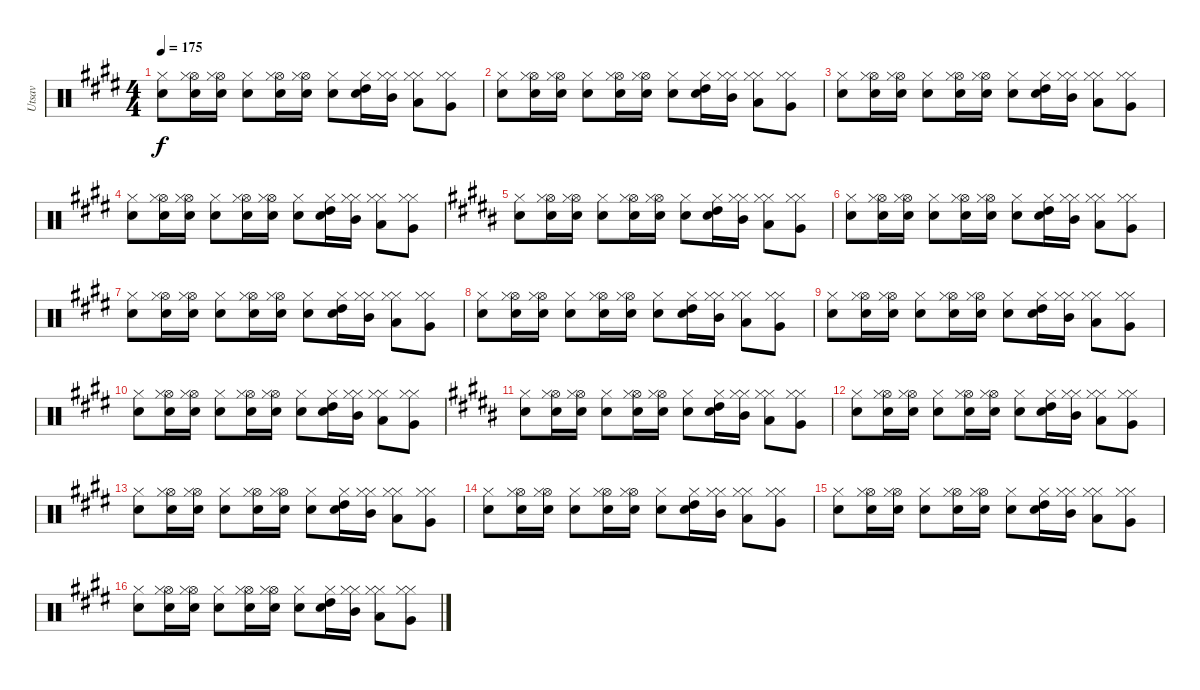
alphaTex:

\track ("Utsav" "Utsav") {instrument percussion}
\staff {score}
\articulation defaults
\ts (4 4)
\tempo 175
\clef neutral
\ks e
("Electric Snare (hit)" "Hi-Hat (closed)").8{dy f} ("Hi-Hat (open)" "Snare (hit) 2" "Hi-Hat (closed)").16 ("Hi-Hat (open)" "Snare (hit) 2" "Hi-Hat (closed)").16 ("Electric Snare (hit)" "Hi-Hat (closed)").8 ("Hi-Hat (open)" "Snare (hit) 2" "Hi-Hat (closed)").16 ("Hi-Hat (open)" "Snare (hit) 2" "Hi-Hat (closed)").16 ("Electric Snare (hit)" "Hi-Hat (closed)").8 ("Hi-Hat (closed)" "High Tom (hit)" "Snare (hit)").16 ("Hi-Hat (closed)" "Mid Tom (hit)" "Hi-Hat (closed)").16 ("Hi-Hat (closed)" "Low Tom (hit)" "Hi-Hat (closed)").8 ("Hi-Hat (closed)" "Very Low Tom (hit)" "Hi-Hat (closed)").8 |
("Electric Snare (hit)" "Hi-Hat (closed)").8 ("Hi-Hat (open)" "Snare (hit) 2" "Hi-Hat (closed)").16 ("Hi-Hat (open)" "Snare (hit) 2" "Hi-Hat (closed)").16 ("Electric Snare (hit)" "Hi-Hat (closed)").8 ("Hi-Hat (open)" "Snare (hit) 2" "Hi-Hat (closed)").16 ("Hi-Hat (open)" "Snare (hit) 2" "Hi-Hat (closed)").16 ("Electric Snare (hit)" "Hi-Hat (closed)").8 ("Hi-Hat (closed)" "High Tom (hit)" "Snare (hit)").16 ("Hi-Hat (closed)" "Mid Tom (hit)" "Hi-Hat (closed)").16 ("Hi-Hat (closed)" "Low Tom (hit)" "Hi-Hat (closed)").8 ("Hi-Hat (closed)" "Very Low Tom (hit)" "Hi-Hat (closed)").8 |
("Electric Snare (hit)" "Hi-Hat (closed)").8 ("Hi-Hat (open)" "Snare (hit) 2" "Hi-Hat (closed)").16 ("Hi-Hat (open)" "Snare (hit) 2" "Hi-Hat (closed)").16 ("Electric Snare (hit)" "Hi-Hat (closed)").8 ("Hi-Hat (open)" "Snare (hit) 2" "Hi-Hat (closed)").16 ("Hi-Hat (open)" "Snare (hit) 2" "Hi-Hat (closed)").16 ("Electric Snare (hit)" "Hi-Hat (closed)").8 ("Hi-Hat (closed)" "High Tom (hit)" "Snare (hit)").16 ("Hi-Hat (closed)" "Mid Tom (hit)" "Hi-Hat (closed)").16 ("Hi-Hat (closed)" "Low Tom (hit)" "Hi-Hat (closed)").8 ("Hi-Hat (closed)" "Very Low Tom (hit)" "Hi-Hat (closed)").8 |
("Electric Snare (hit)" "Hi-Hat (closed)").8 ("Hi-Hat (open)" "Snare (hit) 2" "Hi-Hat (closed)").16 ("Hi-Hat (open)" "Snare (hit) 2" "Hi-Hat (closed)").16 ("Electric Snare (hit)" "Hi-Hat (closed)").8 ("Hi-Hat (open)" "Snare (hit) 2" "Hi-Hat (closed)").16 ("Hi-Hat (open)" "Snare (hit) 2" "Hi-Hat (closed)").16 ("Electric Snare (hit)" "Hi-Hat (closed)").8 ("Hi-Hat (closed)" "High Tom (hit)" "Snare (hit)").16 ("Hi-Hat (closed)" "Mid Tom (hit)" "Hi-Hat (closed)").16 ("Hi-Hat (closed)" "Low Tom (hit)" "Hi-Hat (closed)").8 ("Hi-Hat (closed)" "Very Low Tom (hit)" "Hi-Hat (closed)").8 |
\ks b
("Electric Snare (hit)" "Hi-Hat (closed)").8 ("Hi-Hat (open)" "Snare (hit) 2" "Hi-Hat (closed)").16 ("Hi-Hat (open)" "Snare (hit) 2" "Hi-Hat (closed)").16 ("Electric Snare (hit)" "Hi-Hat (closed)").8 ("Hi-Hat (open)" "Snare (hit) 2" "Hi-Hat (closed)").16 ("Hi-Hat (open)" "Snare (hit) 2" "Hi-Hat (closed)").16 ("Electric Snare (hit)" "Hi-Hat (closed)").8 ("Hi-Hat (closed)" "High Tom (hit)" "Snare (hit)").16 ("Hi-Hat (closed)" "Mid Tom (hit)" "Hi-Hat (closed)").16 ("Hi-Hat (closed)" "Low Tom (hit)" "Hi-Hat (closed)").8 ("Hi-Hat (closed)" "Very Low Tom (hit)" "Hi-Hat (closed)").8 |
("Electric Snare (hit)" "Hi-Hat (closed)").8 ("Hi-Hat (open)" "Snare (hit) 2" "Hi-Hat (closed)").16 ("Hi-Hat (open)" "Snare (hit) 2" "Hi-Hat (closed)").16 ("Electric Snare (hit)" "Hi-Hat (closed)").8 ("Hi-Hat (open)" "Snare (hit) 2" "Hi-Hat (closed)").16 ("Hi-Hat (open)" "Snare (hit) 2" "Hi-Hat (closed)").16 ("Electric Snare (hit)" "Hi-Hat (closed)").8 ("Hi-Hat (closed)" "High Tom (hit)" "Snare (hit)").16 ("Hi-Hat (closed)" "Mid Tom (hit)" "Hi-Hat (closed)").16 ("Hi-Hat (closed)" "Low Tom (hit)" "Hi-Hat (closed)").8 ("Hi-Hat (closed)" "Very Low Tom (hit)" "Hi-Hat (closed)").8 |
\ks e
("Electric Snare (hit)" "Hi-Hat (closed)").8 ("Hi-Hat (open)" "Snare (hit) 2" "Hi-Hat (closed)").16 ("Hi-Hat (open)" "Snare (hit) 2" "Hi-Hat (closed)").16 ("Electric Snare (hit)" "Hi-Hat (closed)").8 ("Hi-Hat (open)" "Snare (hit) 2" "Hi-Hat (closed)").16 ("Hi-Hat (open)" "Snare (hit) 2" "Hi-Hat (closed)").16 ("Electric Snare (hit)" "Hi-Hat (closed)").8 ("Hi-Hat (closed)" "High Tom (hit)" "Snare (hit)").16 ("Hi-Hat (closed)" "Mid Tom (hit)" "Hi-Hat (closed)").16 ("Hi-Hat (closed)" "Low Tom (hit)" "Hi-Hat (closed)").8 ("Hi-Hat (closed)" "Very Low Tom (hit)" "Hi-Hat (closed)").8 |
("Electric Snare (hit)" "Hi-Hat (closed)").8 ("Hi-Hat (open)" "Snare (hit) 2" "Hi-Hat (closed)").16 ("Hi-Hat (open)" "Snare (hit) 2" "Hi-Hat (closed)").16 ("Electric Snare (hit)" "Hi-Hat (closed)").8 ("Hi-Hat (open)" "Snare (hit) 2" "Hi-Hat (closed)").16 ("Hi-Hat (open)" "Snare (hit) 2" "Hi-Hat (closed)").16 ("Electric Snare (hit)" "Hi-Hat (closed)").8 ("Hi-Hat (closed)" "High Tom (hit)" "Snare (hit)").16 ("Hi-Hat (closed)" "Mid Tom (hit)" "Hi-Hat (closed)").16 ("Hi-Hat (closed)" "Low Tom (hit)" "Hi-Hat (closed)").8 ("Hi-Hat (closed)" "Very Low Tom (hit)" "Hi-Hat (closed)").8 |
("Electric Snare (hit)" "Hi-Hat (closed)").8 ("Hi-Hat (open)" "Snare (hit) 2" "Hi-Hat (closed)").16 ("Hi-Hat (open)" "Snare (hit) 2" "Hi-Hat (closed)").16 ("Electric Snare (hit)" "Hi-Hat (closed)").8 ("Hi-Hat (open)" "Snare (hit) 2" "Hi-Hat (closed)").16 ("Hi-Hat (open)" "Snare (hit) 2" "Hi-Hat (closed)").16 ("Electric Snare (hit)" "Hi-Hat (closed)").8 ("Hi-Hat (closed)" "High Tom (hit)" "Snare (hit)").16 ("Hi-Hat (closed)" "Mid Tom (hit)" "Hi-Hat (closed)").16 ("Hi-Hat (closed)" "Low Tom (hit)" "Hi-Hat (closed)").8 ("Hi-Hat (closed)" "Very Low Tom (hit)" "Hi-Hat (closed)").8 |
("Electric Snare (hit)" "Hi-Hat (closed)").8 ("Hi-Hat (open)" "Snare (hit) 2" "Hi-Hat (closed)").16 ("Hi-Hat (open)" "Snare (hit) 2" "Hi-Hat (closed)").16 ("Electric Snare (hit)" "Hi-Hat (closed)").8 ("Hi-Hat (open)" "Snare (hit) 2" "Hi-Hat (closed)").16 ("Hi-Hat (open)" "Snare (hit) 2" "Hi-Hat (closed)").16 ("Electric Snare (hit)" "Hi-Hat (closed)").8 ("Hi-Hat (closed)" "High Tom (hit)" "Snare (hit)").16 ("Hi-Hat (closed)" "Mid Tom (hit)" "Hi-Hat (closed)").16 ("Hi-Hat (closed)" "Low Tom (hit)" "Hi-Hat (closed)").8 ("Hi-Hat (closed)" "Very Low Tom (hit)" "Hi-Hat (closed)").8 |
\ks b
("Electric Snare (hit)" "Hi-Hat (closed)").8 ("Hi-Hat (open)" "Snare (hit) 2" "Hi-Hat (closed)").16 ("Hi-Hat (open)" "Snare (hit) 2" "Hi-Hat (closed)").16 ("Electric Snare (hit)" "Hi-Hat (closed)").8 ("Hi-Hat (open)" "Snare (hit) 2" "Hi-Hat (closed)").16 ("Hi-Hat (open)" "Snare (hit) 2" "Hi-Hat (closed)").16 ("Electric Snare (hit)" "Hi-Hat (closed)").8 ("Hi-Hat (closed)" "High Tom (hit)" "Snare (hit)").16 ("Hi-Hat (closed)" "Mid Tom (hit)" "Hi-Hat (closed)").16 ("Hi-Hat (closed)" "Low Tom (hit)" "Hi-Hat (closed)").8 ("Hi-Hat (closed)" "Very Low Tom (hit)" "Hi-Hat (closed)").8 |
("Electric Snare (hit)" "Hi-Hat (closed)").8 ("Hi-Hat (open)" "Snare (hit) 2" "Hi-Hat (closed)").16 ("Hi-Hat (open)" "Snare (hit) 2" "Hi-Hat (closed)").16 ("Electric Snare (hit)" "Hi-Hat (closed)").8 ("Hi-Hat (open)" "Snare (hit) 2" "Hi-Hat (closed)").16 ("Hi-Hat (open)" "Snare (hit) 2" "Hi-Hat (closed)").16 ("Electric Snare (hit)" "Hi-Hat (closed)").8 ("Hi-Hat (closed)" "High Tom (hit)" "Snare (hit)").16 ("Hi-Hat (closed)" "Mid Tom (hit)" "Hi-Hat (closed)").16 ("Hi-Hat (closed)" "Low Tom (hit)" "Hi-Hat (closed)").8 ("Hi-Hat (closed)" "Very Low Tom (hit)" "Hi-Hat (closed)").8 |
\ks e
("Electric Snare (hit)" "Hi-Hat (closed)").8 ("Hi-Hat (open)" "Snare (hit) 2" "Hi-Hat (closed)").16 ("Hi-Hat (open)" "Snare (hit) 2" "Hi-Hat (closed)").16 ("Electric Snare (hit)" "Hi-Hat (closed)").8 ("Hi-Hat (open)" "Snare (hit) 2" "Hi-Hat (closed)").16 ("Hi-Hat (open)" "Snare (hit) 2" "Hi-Hat (closed)").16 ("Electric Snare (hit)" "Hi-Hat (closed)").8 ("Hi-Hat (closed)" "High Tom (hit)" "Snare (hit)").16 ("Hi-Hat (closed)" "Mid Tom (hit)" "Hi-Hat (closed)").16 ("Hi-Hat (closed)" "Low Tom (hit)" "Hi-Hat (closed)").8 ("Hi-Hat (closed)" "Very Low Tom (hit)" "Hi-Hat (closed)").8 |
("Electric Snare (hit)" "Hi-Hat (closed)").8 ("Hi-Hat (open)" "Snare (hit) 2" "Hi-Hat (closed)").16 ("Hi-Hat (open)" "Snare (hit) 2" "Hi-Hat (closed)").16 ("Electric Snare (hit)" "Hi-Hat (closed)").8 ("Hi-Hat (open)" "Snare (hit) 2" "Hi-Hat (closed)").16 ("Hi-Hat (open)" "Snare (hit) 2" "Hi-Hat (closed)").16 ("Electric Snare (hit)" "Hi-Hat (closed)").8 ("Hi-Hat (closed)" "High Tom (hit)" "Snare (hit)").16 ("Hi-Hat (closed)" "Mid Tom (hit)" "Hi-Hat (closed)").16 ("Hi-Hat (closed)" "Low Tom (hit)" "Hi-Hat (closed)").8 ("Hi-Hat (closed)" "Very Low Tom (hit)" "Hi-Hat (closed)").8 |
("Electric Snare (hit)" "Hi-Hat (closed)").8 ("Hi-Hat (open)" "Snare (hit) 2" "Hi-Hat (closed)").16 ("Hi-Hat (open)" "Snare (hit) 2" "Hi-Hat (closed)").16 ("Electric Snare (hit)" "Hi-Hat (closed)").8 ("Hi-Hat (open)" "Snare (hit) 2" "Hi-Hat (closed)").16 ("Hi-Hat (open)" "Snare (hit) 2" "Hi-Hat (closed)").16 ("Electric Snare (hit)" "Hi-Hat (closed)").8 ("Hi-Hat (closed)" "High Tom (hit)" "Snare (hit)").16 ("Hi-Hat (closed)" "Mid Tom (hit)" "Hi-Hat (closed)").16 ("Hi-Hat (closed)" "Low Tom (hit)" "Hi-Hat (closed)").8 ("Hi-Hat (closed)" "Very Low Tom (hit)" "Hi-Hat (closed)").8 |
("Electric Snare (hit)" "Hi-Hat (closed)").8 ("Hi-Hat (open)" "Snare (hit) 2" "Hi-Hat (closed)").16 ("Hi-Hat (open)" "Snare (hit) 2" "Hi-Hat (closed)").16 ("Electric Snare (hit)" "Hi-Hat (closed)").8 ("Hi-Hat (open)" "Snare (hit) 2" "Hi-Hat (closed)").16 ("Hi-Hat (open)" "Snare (hit) 2" "Hi-Hat (closed)").16 ("Electric Snare (hit)" "Hi-Hat (closed)").8 ("Hi-Hat (closed)" "High Tom (hit)" "Snare (hit)").16 ("Hi-Hat (closed)" "Mid Tom (hit)" "Hi-Hat (closed)").16 ("Hi-Hat (closed)" "Low Tom (hit)" "Hi-Hat (closed)").8 ("Hi-Hat (closed)" "Very Low Tom (hit)" "Hi-Hat (closed)").8
